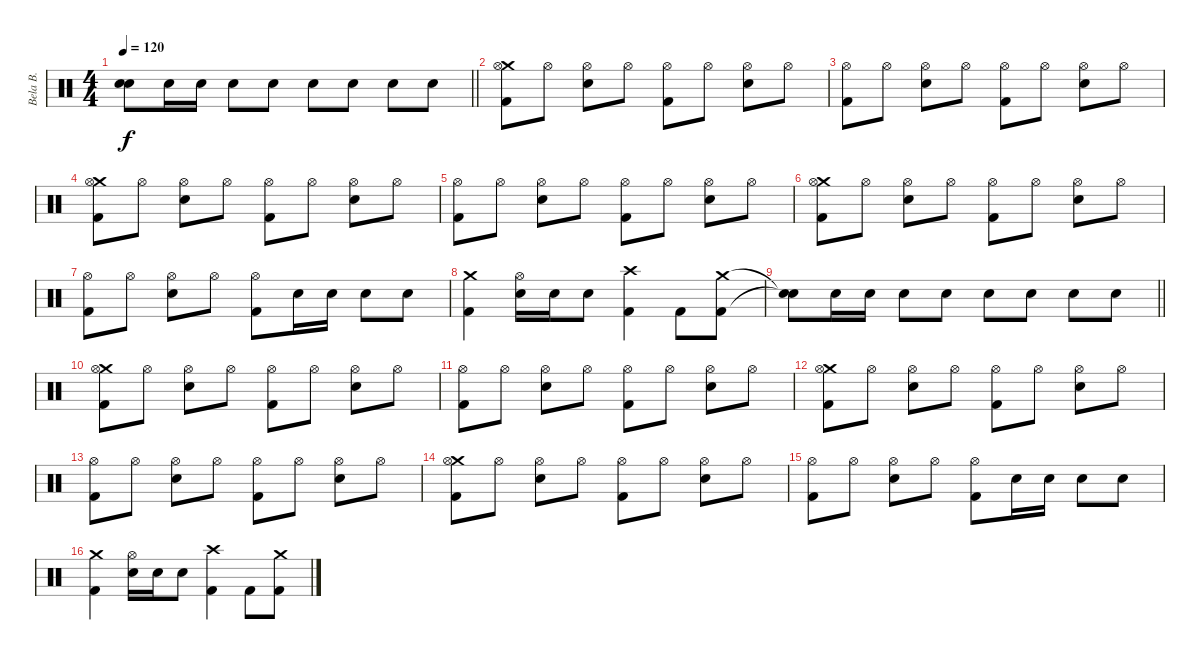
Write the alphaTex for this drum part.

\track ("Bela B." "Bela B.") {instrument percussion}
\staff {score}
\articulation defaults
\ts (4 4)
\tempo 120
\clef neutral
\barLineRight lightlight
\ks c
("Snare (hit)"{t} "Snare (hit)"{t}).8{dy f} "Snare (hit) 2".16 "Snare (hit) 2".16 "Snare (hit) 2".8 "Snare (hit) 2".8 "Snare (hit) 2".8 "Snare (hit) 2".8 "Snare (hit) 2".8 "Snare (hit) 2".8 |
("Crash medium (hit)" "Hi-Hat (open)" "Kick (hit) 2").8 "Hi-Hat (open)".8 ("Hi-Hat (open)" "Snare (hit) 2").8 "Hi-Hat (open)".8 ("Hi-Hat (open)" "Kick (hit) 2").8 "Hi-Hat (open)".8 ("Hi-Hat (open)" "Snare (hit) 2").8 "Hi-Hat (open)".8 |
("Hi-Hat (open)" "Kick (hit) 2").8 "Hi-Hat (open)".8 ("Hi-Hat (open)" "Snare (hit) 2").8 "Hi-Hat (open)".8 ("Hi-Hat (open)" "Kick (hit) 2").8 "Hi-Hat (open)".8 ("Hi-Hat (open)" "Snare (hit) 2").8 "Hi-Hat (open)".8 |
("Crash medium (hit)" "Hi-Hat (open)" "Kick (hit) 2").8 "Hi-Hat (open)".8 ("Hi-Hat (open)" "Snare (hit) 2").8 "Hi-Hat (open)".8 ("Hi-Hat (open)" "Kick (hit) 2").8 "Hi-Hat (open)".8 ("Hi-Hat (open)" "Snare (hit) 2").8 "Hi-Hat (open)".8 |
("Hi-Hat (open)" "Kick (hit) 2").8 "Hi-Hat (open)".8 ("Hi-Hat (open)" "Snare (hit) 2").8 "Hi-Hat (open)".8 ("Hi-Hat (open)" "Kick (hit) 2").8 "Hi-Hat (open)".8 ("Hi-Hat (open)" "Snare (hit) 2").8 "Hi-Hat (open)".8 |
("Crash medium (hit)" "Hi-Hat (open)" "Kick (hit) 2").8 "Hi-Hat (open)".8 ("Hi-Hat (open)" "Snare (hit) 2").8 "Hi-Hat (open)".8 ("Hi-Hat (open)" "Kick (hit) 2").8 "Hi-Hat (open)".8 ("Hi-Hat (open)" "Snare (hit) 2").8 "Hi-Hat (open)".8 |
("Hi-Hat (open)" "Kick (hit) 2").8 "Hi-Hat (open)".8 ("Hi-Hat (open)" "Snare (hit) 2").8 "Hi-Hat (open)".8 ("Hi-Hat (open)" "Kick (hit) 2").8 "Snare (hit) 2".16 "Snare (hit) 2".16 "Snare (hit) 2".8 "Snare (hit) 2".8 |
("Crash medium (hit)" "Kick (hit) 2").4 ("Hi-Hat (open)" "Snare (hit) 2").16 "Snare (hit) 2".16 "Snare (hit) 2".8 ("Crash high (hit)" "Kick (hit) 2").4 "Kick (hit) 2".8 ("Crash medium (hit)" "Kick (hit) 2").8 |
\barLineRight lightlight
("Snare (hit)"{t} "Snare (hit)"{t}).8 "Snare (hit) 2".16 "Snare (hit) 2".16 "Snare (hit) 2".8 "Snare (hit) 2".8 "Snare (hit) 2".8 "Snare (hit) 2".8 "Snare (hit) 2".8 "Snare (hit) 2".8 |
("Crash medium (hit)" "Hi-Hat (open)" "Kick (hit) 2").8 "Hi-Hat (open)".8 ("Hi-Hat (open)" "Snare (hit) 2").8 "Hi-Hat (open)".8 ("Hi-Hat (open)" "Kick (hit) 2").8 "Hi-Hat (open)".8 ("Hi-Hat (open)" "Snare (hit) 2").8 "Hi-Hat (open)".8 |
("Hi-Hat (open)" "Kick (hit) 2").8 "Hi-Hat (open)".8 ("Hi-Hat (open)" "Snare (hit) 2").8 "Hi-Hat (open)".8 ("Hi-Hat (open)" "Kick (hit) 2").8 "Hi-Hat (open)".8 ("Hi-Hat (open)" "Snare (hit) 2").8 "Hi-Hat (open)".8 |
("Crash medium (hit)" "Hi-Hat (open)" "Kick (hit) 2").8 "Hi-Hat (open)".8 ("Hi-Hat (open)" "Snare (hit) 2").8 "Hi-Hat (open)".8 ("Hi-Hat (open)" "Kick (hit) 2").8 "Hi-Hat (open)".8 ("Hi-Hat (open)" "Snare (hit) 2").8 "Hi-Hat (open)".8 |
("Hi-Hat (open)" "Kick (hit) 2").8 "Hi-Hat (open)".8 ("Hi-Hat (open)" "Snare (hit) 2").8 "Hi-Hat (open)".8 ("Hi-Hat (open)" "Kick (hit) 2").8 "Hi-Hat (open)".8 ("Hi-Hat (open)" "Snare (hit) 2").8 "Hi-Hat (open)".8 |
("Crash medium (hit)" "Hi-Hat (open)" "Kick (hit) 2").8 "Hi-Hat (open)".8 ("Hi-Hat (open)" "Snare (hit) 2").8 "Hi-Hat (open)".8 ("Hi-Hat (open)" "Kick (hit) 2").8 "Hi-Hat (open)".8 ("Hi-Hat (open)" "Snare (hit) 2").8 "Hi-Hat (open)".8 |
("Hi-Hat (open)" "Kick (hit) 2").8 "Hi-Hat (open)".8 ("Hi-Hat (open)" "Snare (hit) 2").8 "Hi-Hat (open)".8 ("Hi-Hat (open)" "Kick (hit) 2").8 "Snare (hit) 2".16 "Snare (hit) 2".16 "Snare (hit) 2".8 "Snare (hit) 2".8 |
("Crash medium (hit)" "Kick (hit) 2").4 ("Hi-Hat (open)" "Snare (hit) 2").16 "Snare (hit) 2".16 "Snare (hit) 2".8 ("Crash high (hit)" "Kick (hit) 2").4 "Kick (hit) 2".8 ("Crash medium (hit)" "Kick (hit) 2").8
